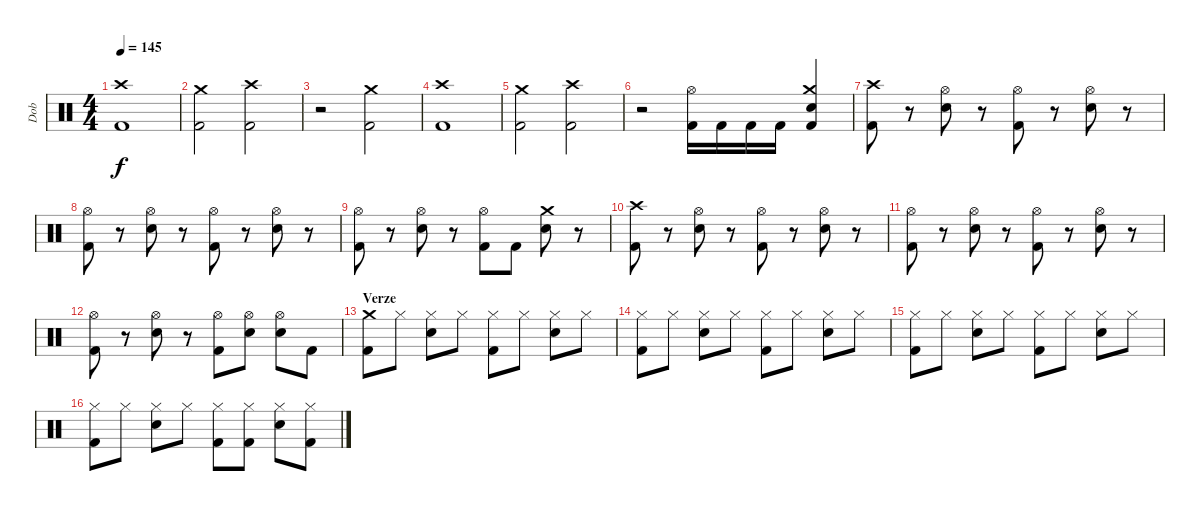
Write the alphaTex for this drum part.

\track ("Dob" "Dob") {instrument percussion}
\staff {score}
\articulation defaults
\ts (4 4)
\tempo 145
\clef neutral
\ks c
("Crash high (hit)" "Kick (hit) 2").1{dy f} |
("Crash medium (hit)" "Kick (hit) 2").2 ("Crash high (hit)" "Kick (hit) 2").2 |
r.2 ("Crash medium (hit)" "Kick (hit) 2").2 |
("Crash high (hit)" "Kick (hit) 2").1 |
("Crash medium (hit)" "Kick (hit) 2").2 ("Crash high (hit)" "Kick (hit) 2").2 |
r.2 ("Hi-Hat (open)" "Kick (hit) 2").16 "Kick (hit) 2".16 "Kick (hit) 2".16 "Kick (hit) 2".16 ("Crash medium (hit)" "Electric Snare (hit)" "Kick (hit) 2").4 |
("Crash high (hit)" "Kick (hit) 2").8 r.8 ("Hi-Hat (open)" "Electric Snare (hit)").8 r.8 ("Hi-Hat (open)" "Kick (hit) 2").8 r.8 ("Hi-Hat (open)" "Electric Snare (hit)").8 r.8 |
("Hi-Hat (open)" "Kick (hit) 2").8 r.8 ("Hi-Hat (open)" "Electric Snare (hit)").8 r.8 ("Hi-Hat (open)" "Kick (hit) 2").8 r.8 ("Hi-Hat (open)" "Electric Snare (hit)").8 r.8 |
("Hi-Hat (open)" "Kick (hit) 2").8 r.8 ("Hi-Hat (open)" "Electric Snare (hit)").8 r.8 ("Hi-Hat (open)" "Kick (hit) 2").8 "Kick (hit) 2".8 ("Crash medium (hit)" "Electric Snare (hit)").8 r.8 |
("Crash high (hit)" "Kick (hit) 2").8 r.8 ("Hi-Hat (open)" "Electric Snare (hit)").8 r.8 ("Hi-Hat (open)" "Kick (hit) 2").8 r.8 ("Hi-Hat (open)" "Electric Snare (hit)").8 r.8 |
("Hi-Hat (open)" "Kick (hit) 2").8 r.8 ("Hi-Hat (open)" "Electric Snare (hit)").8 r.8 ("Hi-Hat (open)" "Kick (hit) 2").8 r.8 ("Hi-Hat (open)" "Electric Snare (hit)").8 r.8 |
("Hi-Hat (open)" "Kick (hit) 2").8 r.8 ("Hi-Hat (open)" "Electric Snare (hit)").8 r.8 ("Hi-Hat (open)" "Kick (hit) 2").8 ("Hi-Hat (open)" "Electric Snare (hit)").8 ("Hi-Hat (open)" "Electric Snare (hit)").8 "Kick (hit) 2".8 |
\section ("" "Verze")
("Crash medium (hit)" "Kick (hit) 2").8 "Hi-Hat (closed)".8 ("Hi-Hat (closed)" "Electric Snare (hit)").8 "Hi-Hat (closed)".8 ("Hi-Hat (closed)" "Kick (hit) 2").8 "Hi-Hat (closed)".8 ("Hi-Hat (closed)" "Electric Snare (hit)").8 "Hi-Hat (closed)".8 |
("Hi-Hat (closed)" "Kick (hit) 2").8 "Hi-Hat (closed)".8 ("Hi-Hat (closed)" "Electric Snare (hit)").8 "Hi-Hat (closed)".8 ("Hi-Hat (closed)" "Kick (hit) 2").8 "Hi-Hat (closed)".8 ("Hi-Hat (closed)" "Electric Snare (hit)").8 "Hi-Hat (closed)".8 |
("Hi-Hat (closed)" "Kick (hit) 2").8 "Hi-Hat (closed)".8 ("Hi-Hat (closed)" "Electric Snare (hit)").8 "Hi-Hat (closed)".8 ("Hi-Hat (closed)" "Kick (hit) 2").8 "Hi-Hat (closed)".8 ("Hi-Hat (closed)" "Electric Snare (hit)").8 "Hi-Hat (closed)".8 |
("Hi-Hat (closed)" "Kick (hit) 2").8 "Hi-Hat (closed)".8 ("Hi-Hat (closed)" "Electric Snare (hit)").8 "Hi-Hat (closed)".8 ("Hi-Hat (closed)" "Kick (hit) 2").8 ("Hi-Hat (closed)" "Kick (hit) 2").8 ("Hi-Hat (closed)" "Electric Snare (hit)").8 ("Hi-Hat (closed)" "Kick (hit) 2").8
